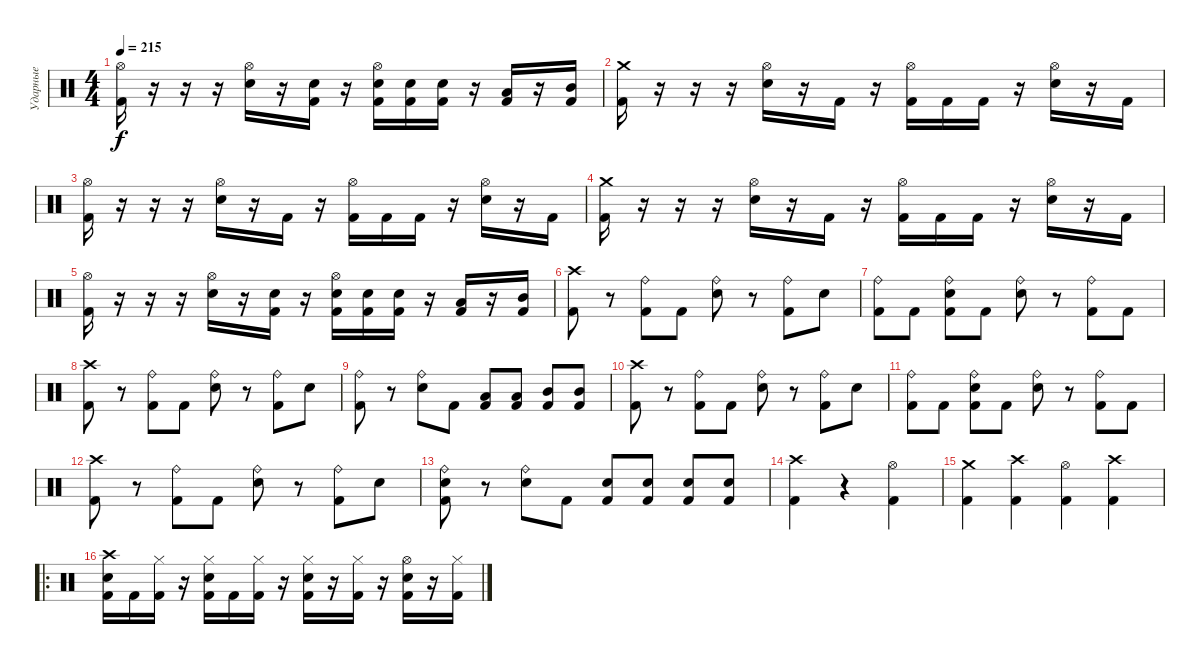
\track ("Ударные" "Ударные") {instrument percussion}
\staff {score}
\articulation defaults
\ts (4 4)
\tempo 215
\clef neutral
\ks c
("Hi-Hat (open)" "Kick (hit) 2").16{dy f} r.16 r.16 r.16 ("Hi-Hat (open)" "Snare (hit) 2").16 r.16 ("Snare (hit) 2" "Kick (hit) 2").16 r.16 ("Hi-Hat (open)" "Snare (hit) 2" "Kick (hit) 2").16 ("Snare (hit) 2" "Kick (hit) 2").16 ("Snare (hit) 2" "Kick (hit) 2").16 r.16 ("Low Tom (hit)" "Kick (hit) 2").16 r.16 ("Mid Tom (hit)" "Kick (hit) 2").16 |
("Crash medium (hit)" "Kick (hit) 2").16 r.16 r.16 r.16 ("Hi-Hat (open)" "Snare (hit) 2").16 r.16 "Kick (hit) 2".16 r.16 ("Hi-Hat (open)" "Kick (hit) 2").16 "Kick (hit) 2".16 "Kick (hit) 2".16 r.16 ("Hi-Hat (open)" "Snare (hit) 2").16 r.16 "Kick (hit) 2".16 |
("Hi-Hat (open)" "Kick (hit) 2").16 r.16 r.16 r.16 ("Hi-Hat (open)" "Snare (hit) 2").16 r.16 "Kick (hit) 2".16 r.16 ("Hi-Hat (open)" "Kick (hit) 2").16 "Kick (hit) 2".16 "Kick (hit) 2".16 r.16 ("Hi-Hat (open)" "Snare (hit) 2").16 r.16 "Kick (hit) 2".16 |
("Crash medium (hit)" "Kick (hit) 2").16 r.16 r.16 r.16 ("Hi-Hat (open)" "Snare (hit) 2").16 r.16 "Kick (hit) 2".16 r.16 ("Hi-Hat (open)" "Kick (hit) 2").16 "Kick (hit) 2".16 "Kick (hit) 2".16 r.16 ("Hi-Hat (open)" "Snare (hit) 2").16 r.16 "Kick (hit) 2".16 |
("Hi-Hat (open)" "Kick (hit) 2").16 r.16 r.16 r.16 ("Hi-Hat (open)" "Snare (hit) 2").16 r.16 ("Snare (hit) 2" "Kick (hit) 2").16 r.16 ("Hi-Hat (open)" "Snare (hit) 2" "Kick (hit) 2").16 ("Snare (hit) 2" "Kick (hit) 2").16 ("Snare (hit) 2" "Kick (hit) 2").16 r.16 ("Low Tom (hit)" "Kick (hit) 2").16 r.16 ("Mid Tom (hit)" "Kick (hit) 2").16 |
("Crash high (hit)" "Kick (hit) 2").8 r.8 ("Ride (bell)" "Kick (hit) 2").8 "Kick (hit) 2".8 ("Ride (bell)" "Snare (hit) 2").8 r.8 ("Ride (bell)" "Kick (hit) 2").8 "Snare (hit) 2".8 |
("Ride (bell)" "Kick (hit) 2").8 "Kick (hit) 2".8 ("Ride (bell)" "Snare (hit) 2" "Kick (hit) 2").8 "Kick (hit) 2".8 ("Ride (bell)" "Snare (hit) 2").8 r.8 ("Ride (bell)" "Kick (hit) 2").8 "Kick (hit) 2".8 |
("Crash high (hit)" "Kick (hit) 2").8 r.8 ("Ride (bell)" "Kick (hit) 2").8 "Kick (hit) 2".8 ("Ride (bell)" "Snare (hit) 2").8 r.8 ("Ride (bell)" "Kick (hit) 2").8 "Snare (hit) 2".8 |
("Ride (bell)" "Kick (hit) 2").8 r.8 ("Ride (bell)" "Snare (hit) 2").8 "Kick (hit) 2".8 ("Low Tom (hit)" "Kick (hit) 2").8 ("Low Tom (hit)" "Kick (hit) 2").8 ("Mid Tom (hit)" "Kick (hit) 2").8 ("Mid Tom (hit)" "Kick (hit) 2").8 |
("Crash high (hit)" "Kick (hit) 2").8 r.8 ("Ride (bell)" "Kick (hit) 2").8 "Kick (hit) 2".8 ("Ride (bell)" "Snare (hit) 2").8 r.8 ("Ride (bell)" "Kick (hit) 2").8 "Snare (hit) 2".8 |
("Ride (bell)" "Kick (hit) 2").8 "Kick (hit) 2".8 ("Ride (bell)" "Snare (hit) 2" "Kick (hit) 2").8 "Kick (hit) 2".8 ("Ride (bell)" "Snare (hit) 2").8 r.8 ("Ride (bell)" "Kick (hit) 2").8 "Kick (hit) 2".8 |
("Crash high (hit)" "Kick (hit) 2").8 r.8 ("Ride (bell)" "Kick (hit) 2").8 "Kick (hit) 2".8 ("Ride (bell)" "Snare (hit) 2").8 r.8 ("Ride (bell)" "Kick (hit) 2").8 "Snare (hit) 2".8 |
("Ride (bell)" "Snare (hit) 2" "Kick (hit) 2").8 r.8 ("Ride (bell)" "Snare (hit) 2").8 "Kick (hit) 2".8 ("Snare (hit) 2" "Kick (hit) 2").8 ("Snare (hit) 2" "Kick (hit) 2").8 ("Snare (hit) 2" "Kick (hit) 2").8 ("Snare (hit) 2" "Kick (hit) 2").8 |
("Crash high (hit)" "Kick (hit) 2").4 r.4 ("Hi-Hat (open)" "Kick (hit) 2").4 |
("Crash medium (hit)" "Kick (hit) 2").4 ("Crash high (hit)" "Kick (hit) 2").4 ("Hi-Hat (open)" "Kick (hit) 2").4 ("Crash high (hit)" "Kick (hit) 2").4 |
\ro
("Crash high (hit)" "Snare (hit) 2" "Kick (hit) 2").16 "Kick (hit) 2".16 ("Hi-Hat (closed)" "Kick (hit) 2").16 r.16 ("Hi-Hat (closed)" "Snare (hit) 2" "Kick (hit) 2").16 "Kick (hit) 2".16 ("Hi-Hat (closed)" "Kick (hit) 2").16 r.16 ("Hi-Hat (closed)" "Snare (hit) 2" "Kick (hit) 2").16 r.16 ("Hi-Hat (closed)" "Kick (hit) 2").16 r.16 ("Hi-Hat (open)" "Snare (hit) 2" "Kick (hit) 2").16 r.16 ("Hi-Hat (closed)" "Kick (hit) 2").16
